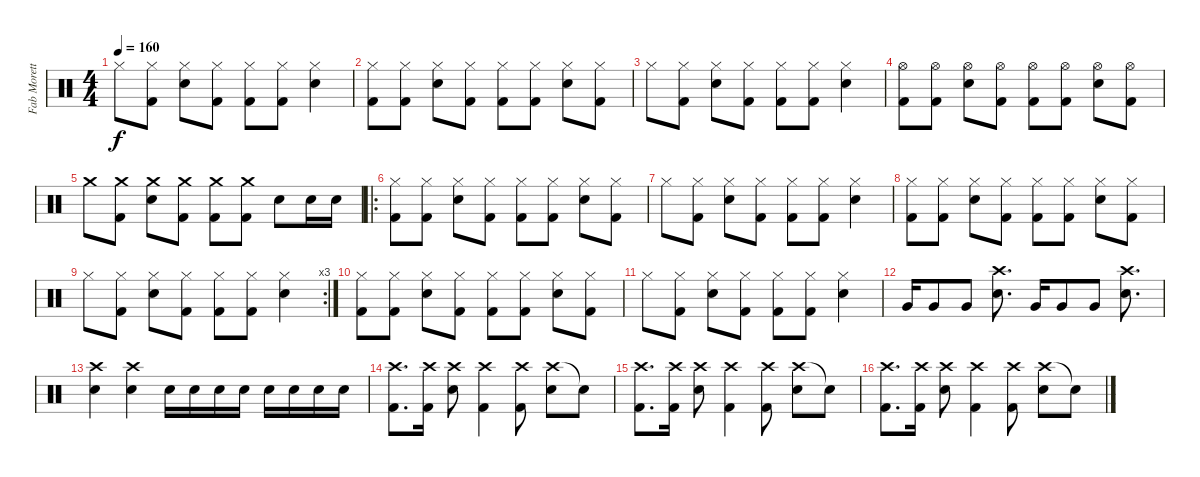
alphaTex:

\track ("Fab Moretti " "Fab Morett") {instrument percussion}
\staff {score}
\articulation defaults
\ts (4 4)
\tempo 160
\clef neutral
\ks c "Hi-Hat (closed)".8{dy f}
("Kick (hit) 2" "Hi-Hat (closed)").8 ("Electric Snare (hit)" "Hi-Hat (closed)").8 ("Kick (hit) 2" "Hi-Hat (closed)").8 ("Kick (hit) 2" "Hi-Hat (closed)").8 ("Kick (hit) 2" "Hi-Hat (closed)").8 ("Electric Snare (hit)" "Hi-Hat (closed)").4 |
("Kick (hit) 2" "Hi-Hat (closed)").8 ("Kick (hit) 2" "Hi-Hat (closed)").8 ("Electric Snare (hit)" "Hi-Hat (closed)").8 ("Kick (hit) 2" "Hi-Hat (closed)").8 ("Kick (hit) 2" "Hi-Hat (closed)").8 ("Kick (hit) 2" "Hi-Hat (closed)").8 ("Electric Snare (hit)" "Hi-Hat (closed)").8 ("Kick (hit) 2" "Hi-Hat (closed)").8 |
"Hi-Hat (closed)".8 ("Kick (hit) 2" "Hi-Hat (closed)").8 ("Electric Snare (hit)" "Hi-Hat (closed)").8 ("Kick (hit) 2" "Hi-Hat (closed)").8 ("Kick (hit) 2" "Hi-Hat (closed)").8 ("Kick (hit) 2" "Hi-Hat (closed)").8 ("Electric Snare (hit)" "Hi-Hat (closed)").4 |
("Kick (hit) 2" "Hi-Hat (open)").8 ("Kick (hit) 2" "Hi-Hat (open)").8 ("Electric Snare (hit)" "Hi-Hat (open)").8 ("Kick (hit) 2" "Hi-Hat (open)").8 ("Kick (hit) 2" "Hi-Hat (open)").8 ("Kick (hit) 2" "Hi-Hat (open)").8 ("Electric Snare (hit)" "Hi-Hat (open)").8 ("Kick (hit) 2" "Hi-Hat (open)").8 |
"Crash medium (hit)".8 ("Kick (hit) 2" "Crash medium (hit)").8 ("Electric Snare (hit)" "Crash medium (hit)").8 ("Kick (hit) 2" "Crash medium (hit)").8 ("Kick (hit) 2" "Crash medium (hit)").8 ("Kick (hit) 2" "Crash medium (hit)").8 "Electric Snare (hit)".8 "Electric Snare (hit)".16 "Electric Snare (hit)".16 |
\ro
("Kick (hit) 2" "Hi-Hat (closed)").8 ("Kick (hit) 2" "Hi-Hat (closed)").8 ("Electric Snare (hit)" "Hi-Hat (closed)").8 ("Kick (hit) 2" "Hi-Hat (closed)").8 ("Kick (hit) 2" "Hi-Hat (closed)").8 ("Kick (hit) 2" "Hi-Hat (closed)").8 ("Electric Snare (hit)" "Hi-Hat (closed)").8 ("Kick (hit) 2" "Hi-Hat (closed)").8 |
"Hi-Hat (closed)".8 ("Kick (hit) 2" "Hi-Hat (closed)").8 ("Electric Snare (hit)" "Hi-Hat (closed)").8 ("Kick (hit) 2" "Hi-Hat (closed)").8 ("Kick (hit) 2" "Hi-Hat (closed)").8 ("Kick (hit) 2" "Hi-Hat (closed)").8 ("Electric Snare (hit)" "Hi-Hat (closed)").4 |
("Kick (hit) 2" "Hi-Hat (closed)").8 ("Kick (hit) 2" "Hi-Hat (closed)").8 ("Electric Snare (hit)" "Hi-Hat (closed)").8 ("Kick (hit) 2" "Hi-Hat (closed)").8 ("Kick (hit) 2" "Hi-Hat (closed)").8 ("Kick (hit) 2" "Hi-Hat (closed)").8 ("Electric Snare (hit)" "Hi-Hat (closed)").8 ("Kick (hit) 2" "Hi-Hat (closed)").8 |
\rc 3 "Hi-Hat (closed)".8
("Kick (hit) 2" "Hi-Hat (closed)").8 ("Electric Snare (hit)" "Hi-Hat (closed)").8 ("Kick (hit) 2" "Hi-Hat (closed)").8 ("Kick (hit) 2" "Hi-Hat (closed)").8 ("Kick (hit) 2" "Hi-Hat (closed)").8 ("Electric Snare (hit)" "Hi-Hat (closed)").4 |
("Kick (hit) 2" "Hi-Hat (closed)").8 ("Kick (hit) 2" "Hi-Hat (closed)").8 ("Electric Snare (hit)" "Hi-Hat (closed)").8 ("Kick (hit) 2" "Hi-Hat (closed)").8 ("Kick (hit) 2" "Hi-Hat (closed)").8 ("Kick (hit) 2" "Hi-Hat (closed)").8 ("Electric Snare (hit)" "Hi-Hat (closed)").8 ("Kick (hit) 2" "Hi-Hat (closed)").8 |
"Hi-Hat (closed)".8 ("Kick (hit) 2" "Hi-Hat (closed)").8 ("Electric Snare (hit)" "Hi-Hat (closed)").8 ("Kick (hit) 2" "Hi-Hat (closed)").8 ("Kick (hit) 2" "Hi-Hat (closed)").8 ("Kick (hit) 2" "Hi-Hat (closed)").8 ("Electric Snare (hit)" "Hi-Hat (closed)").4 |
"Very Low Tom (hit)".16 "Very Low Tom (hit)".8 "Very Low Tom (hit)".8 ("Crash high (hit)" "Electric Snare (hit)").8{d} "Very Low Tom (hit)".16 "Very Low Tom (hit)".8 "Very Low Tom (hit)".8 ("Crash high (hit)" "Electric Snare (hit)").8{d} |
("Crash high (hit)" "Electric Snare (hit)").4 ("Crash high (hit)" "Electric Snare (hit)").4 "Electric Snare (hit)".16 "Electric Snare (hit)".16 "Electric Snare (hit)".16 "Electric Snare (hit)".16 "Electric Snare (hit)".16 "Electric Snare (hit)".16 "Electric Snare (hit)".16 "Electric Snare (hit)".16 |
("Crash high (hit)" "Kick (hit) 2").8{d} ("Crash high (hit)" "Kick (hit) 2").16 ("Crash high (hit)" "Electric Snare (hit)").8 ("Crash high (hit)" "Kick (hit) 2").4 ("Crash high (hit)" "Kick (hit) 2").8 ("Crash high (hit)" "Electric Snare (hit)").8 "Electric Snare (hit)"{t}.8 |
("Crash high (hit)" "Kick (hit) 2").8{d} ("Crash high (hit)" "Kick (hit) 2").16 ("Crash high (hit)" "Electric Snare (hit)").8 ("Crash high (hit)" "Kick (hit) 2").4 ("Crash high (hit)" "Kick (hit) 2").8 ("Crash high (hit)" "Electric Snare (hit)").8 "Electric Snare (hit)"{t}.8 |
("Crash high (hit)" "Kick (hit) 2").8{d} ("Crash high (hit)" "Kick (hit) 2").16 ("Crash high (hit)" "Electric Snare (hit)").8 ("Crash high (hit)" "Kick (hit) 2").4 ("Crash high (hit)" "Kick (hit) 2").8 ("Crash high (hit)" "Electric Snare (hit)").8 "Electric Snare (hit)"{t}.8
